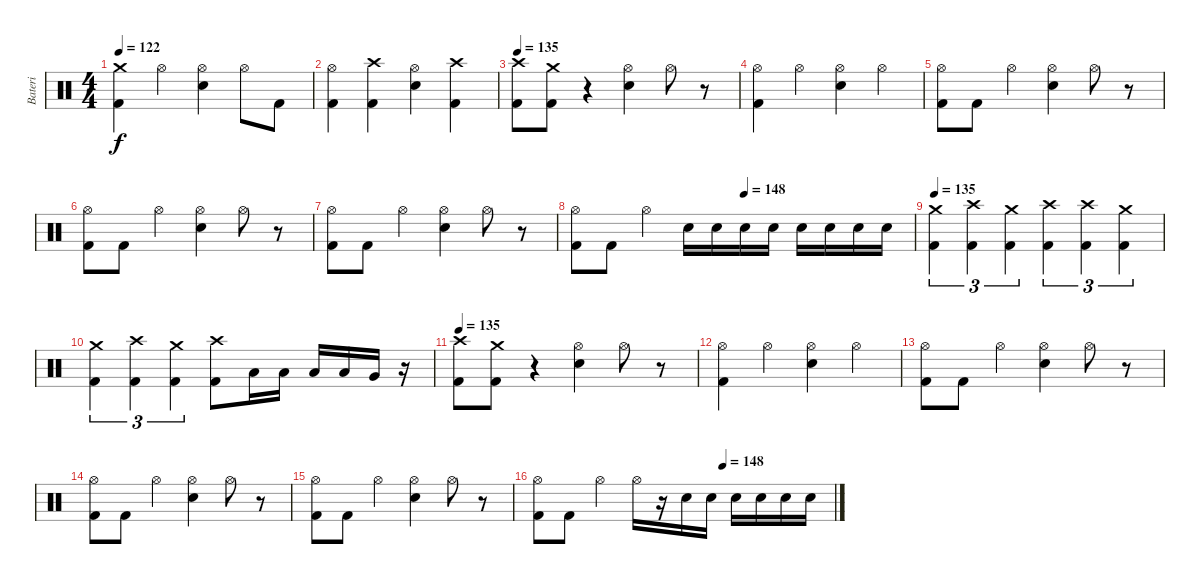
\track ("Bateri" "Bateri") {instrument percussion}
\staff {score}
\articulation defaults
\ts (4 4)
\tempo 122
\clef neutral
\ks c
("Crash medium (hit)" "Kick (hit) 2").4{dy f} "Hi-Hat (open)".4 ("Hi-Hat (open)" "Snare (hit) 2").4 "Hi-Hat (open)".8 "Kick (hit) 2".8 |
("Hi-Hat (open)" "Kick (hit) 2").4 ("Crash high (hit)" "Kick (hit) 2").4 ("Hi-Hat (open)" "Snare (hit) 2").4 ("Crash high (hit)" "Kick (hit) 2").4 |
\tempo 135
("Crash high (hit)" "Kick (hit) 2").8 ("Crash medium (hit)" "Kick (hit) 2").8 r.4 ("Hi-Hat (open)" "Snare (hit) 2").4 "Hi-Hat (open)".8 r.8 |
("Hi-Hat (open)" "Kick (hit) 2").4 "Hi-Hat (open)".4 ("Hi-Hat (open)" "Snare (hit) 2").4 "Hi-Hat (open)".4 |
("Hi-Hat (open)" "Kick (hit) 2").8 "Kick (hit) 2".8 "Hi-Hat (open)".4 ("Hi-Hat (open)" "Snare (hit) 2").4 "Hi-Hat (open)".8 r.8 |
("Hi-Hat (open)" "Kick (hit) 2").8 "Kick (hit) 2".8 "Hi-Hat (open)".4 ("Hi-Hat (open)" "Snare (hit) 2").4 "Hi-Hat (open)".8 r.8 |
("Hi-Hat (open)" "Kick (hit) 2").8 "Kick (hit) 2".8 "Hi-Hat (open)".4 ("Hi-Hat (open)" "Snare (hit) 2").4 "Hi-Hat (open)".8 r.8 |
\tempo (148 0.5)
("Hi-Hat (open)" "Kick (hit) 2").8 "Kick (hit) 2".8 "Hi-Hat (open)".4 "Snare (hit) 2".16 "Snare (hit) 2".16 "Snare (hit) 2".16 "Snare (hit) 2".16 "Snare (hit) 2".16 "Snare (hit) 2".16 "Snare (hit) 2".16 "Snare (hit) 2".16 |
\tempo 135
("Crash medium (hit)" "Kick (hit) 2").4{tu (3 2)} ("Crash high (hit)" "Kick (hit) 2").4{tu (3 2)} ("Crash medium (hit)" "Kick (hit) 2").4{tu (3 2)} ("Crash high (hit)" "Kick (hit) 2").4{tu (3 2)} ("Crash high (hit)" "Kick (hit) 2").4{tu (3 2)} ("Crash medium (hit)" "Kick (hit) 2").4{tu (3 2)} |
("Crash medium (hit)" "Kick (hit) 2").4{tu (3 2)} ("Crash high (hit)" "Kick (hit) 2").4{tu (3 2)} ("Crash medium (hit)" "Kick (hit) 2").4{tu (3 2)} ("Crash high (hit)" "Kick (hit) 2").8 "Low Tom (hit)".16 "Low Tom (hit)".16 "Low Tom (hit)".16 "Low Tom (hit)".16 "Very Low Tom (hit)".16 r.16 |
\tempo 135
("Crash high (hit)" "Kick (hit) 2").8 ("Crash medium (hit)" "Kick (hit) 2").8 r.4 ("Hi-Hat (open)" "Snare (hit) 2").4 "Hi-Hat (open)".8 r.8 |
("Hi-Hat (open)" "Kick (hit) 2").4 "Hi-Hat (open)".4 ("Hi-Hat (open)" "Snare (hit) 2").4 "Hi-Hat (open)".4 |
("Hi-Hat (open)" "Kick (hit) 2").8 "Kick (hit) 2".8 "Hi-Hat (open)".4 ("Hi-Hat (open)" "Snare (hit) 2").4 "Hi-Hat (open)".8 r.8 |
("Hi-Hat (open)" "Kick (hit) 2").8 "Kick (hit) 2".8 "Hi-Hat (open)".4 ("Hi-Hat (open)" "Snare (hit) 2").4 "Hi-Hat (open)".8 r.8 |
("Hi-Hat (open)" "Kick (hit) 2").8 "Kick (hit) 2".8 "Hi-Hat (open)".4 ("Hi-Hat (open)" "Snare (hit) 2").4 "Hi-Hat (open)".8 r.8 |
\tempo (148 0.625)
("Hi-Hat (open)" "Kick (hit) 2").8 "Kick (hit) 2".8 "Hi-Hat (open)".4 "Hi-Hat (open)".16 r.16 "Snare (hit) 2".16 "Snare (hit) 2".16 "Snare (hit) 2".16 "Snare (hit) 2".16 "Snare (hit) 2".16 "Snare (hit) 2".16
